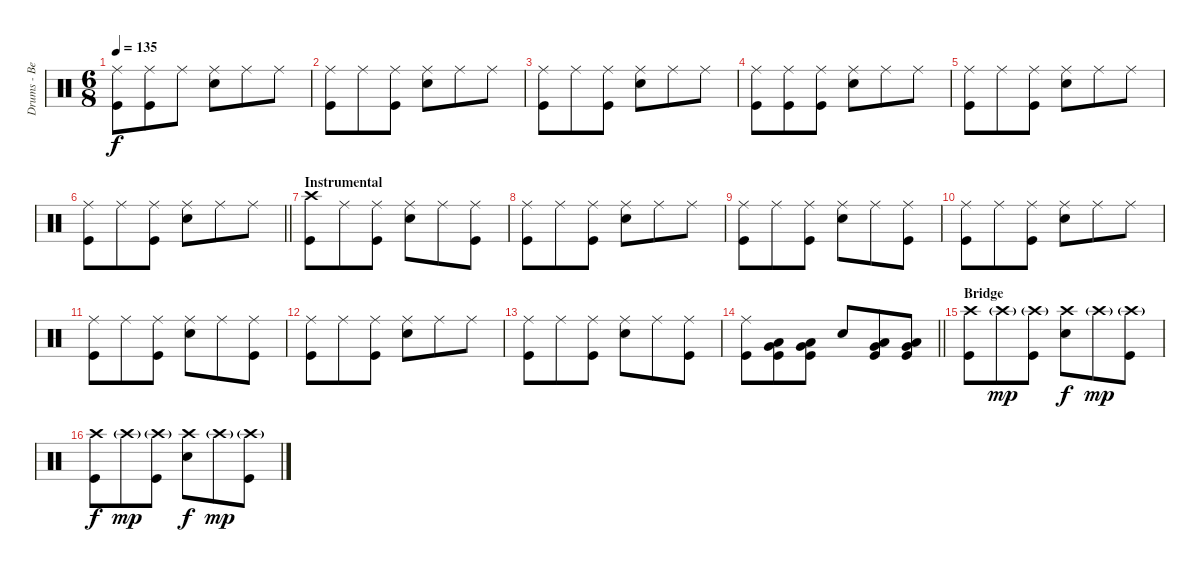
\track ("Drums - Ben Johnston" "Drums - Be") {instrument percussion}
\staff {score}
\articulation defaults
\ts (6 8)
\tempo 135
\clef neutral
\ks c
("Ride (middle)" "Kick (hit)").8{dy f} ("Ride (middle)" "Kick (hit)").8 "Ride (middle)".8 ("Ride (middle)" "Snare (hit) 2").8 "Ride (middle)".8 "Ride (middle)".8 |
("Ride (middle)" "Kick (hit)").8 "Ride (middle)".8 ("Ride (middle)" "Kick (hit)").8 ("Ride (middle)" "Snare (hit) 2").8 "Ride (middle)".8 "Ride (middle)".8 |
("Ride (middle)" "Kick (hit)").8 "Ride (middle)".8 ("Ride (middle)" "Kick (hit)").8 ("Ride (middle)" "Snare (hit) 2").8 "Ride (middle)".8 "Ride (middle)".8 |
("Ride (middle)" "Kick (hit)").8 ("Ride (middle)" "Kick (hit)").8 ("Ride (middle)" "Kick (hit)").8 ("Ride (middle)" "Snare (hit) 2").8 "Ride (middle)".8 "Ride (middle)".8 |
("Ride (middle)" "Kick (hit)").8 "Ride (middle)".8 ("Ride (middle)" "Kick (hit)").8 ("Ride (middle)" "Snare (hit) 2").8 "Ride (middle)".8 "Ride (middle)".8 |
\barLineRight lightlight
("Ride (middle)" "Kick (hit)").8 "Ride (middle)".8 ("Ride (middle)" "Kick (hit)").8 ("Ride (middle)" "Snare (hit) 2").8 "Ride (middle)".8 "Ride (middle)".8 |
\section ("" "Instrumental")
("Crash high (hit)" "Kick (hit)").8 "Ride (middle)".8 ("Ride (middle)" "Kick (hit)").8 ("Ride (middle)" "Snare (hit) 2").8 "Ride (middle)".8 ("Ride (middle)" "Kick (hit)").8 |
("Ride (middle)" "Kick (hit)").8 "Ride (middle)".8 ("Ride (middle)" "Kick (hit)").8 ("Ride (middle)" "Snare (hit) 2").8 "Ride (middle)".8 "Ride (middle)".8 |
("Ride (middle)" "Kick (hit)").8 "Ride (middle)".8 ("Ride (middle)" "Kick (hit)").8 ("Ride (middle)" "Snare (hit) 2").8 "Ride (middle)".8 ("Ride (middle)" "Kick (hit)").8 |
("Ride (middle)" "Kick (hit)").8 "Ride (middle)".8 ("Ride (middle)" "Kick (hit)").8 ("Ride (middle)" "Snare (hit) 2").8 "Ride (middle)".8 "Ride (middle)".8 |
("Ride (middle)" "Kick (hit)").8 "Ride (middle)".8 ("Ride (middle)" "Kick (hit)").8 ("Ride (middle)" "Snare (hit) 2").8 "Ride (middle)".8 ("Ride (middle)" "Kick (hit)").8 |
("Ride (middle)" "Kick (hit)").8 "Ride (middle)".8 ("Ride (middle)" "Kick (hit)").8 ("Ride (middle)" "Snare (hit) 2").8 "Ride (middle)".8 "Ride (middle)".8 |
("Ride (middle)" "Kick (hit)").8 "Ride (middle)".8 ("Ride (middle)" "Kick (hit)").8 ("Ride (middle)" "Snare (hit) 2").8 "Ride (middle)".8 ("Ride (middle)" "Kick (hit)").8 |
\barLineRight lightlight
("Ride (middle)" "Kick (hit)").8 ("Low Floor Tom (hit)" "Very Low Tom (hit)" "Kick (hit)").8 ("Low Floor Tom (hit)" "Very Low Tom (hit)" "Kick (hit)").8 "Snare (hit) 2".8 ("Low Floor Tom (hit)" "Very Low Tom (hit)" "Kick (hit)").8 ("Low Floor Tom (hit)" "Very Low Tom (hit)" "Kick (hit)").8 |
\section ("" "Bridge")
("Crash high (hit)" "Kick (hit)").8 "Crash high (hit)"{g}.8{dy mp} ("Crash high (hit)"{g} "Kick (hit)").8 ("Crash high (hit)" "Snare (hit) 2").8{dy f} "Crash high (hit)"{g}.8{dy mp} ("Crash high (hit)"{g} "Kick (hit)").8 |
("Crash high (hit)" "Kick (hit)").8{dy f} "Crash high (hit)"{g}.8{dy mp} ("Crash high (hit)"{g} "Kick (hit)").8 ("Crash high (hit)" "Snare (hit) 2").8{dy f} "Crash high (hit)"{g}.8{dy mp} ("Crash high (hit)"{g} "Kick (hit)").8
